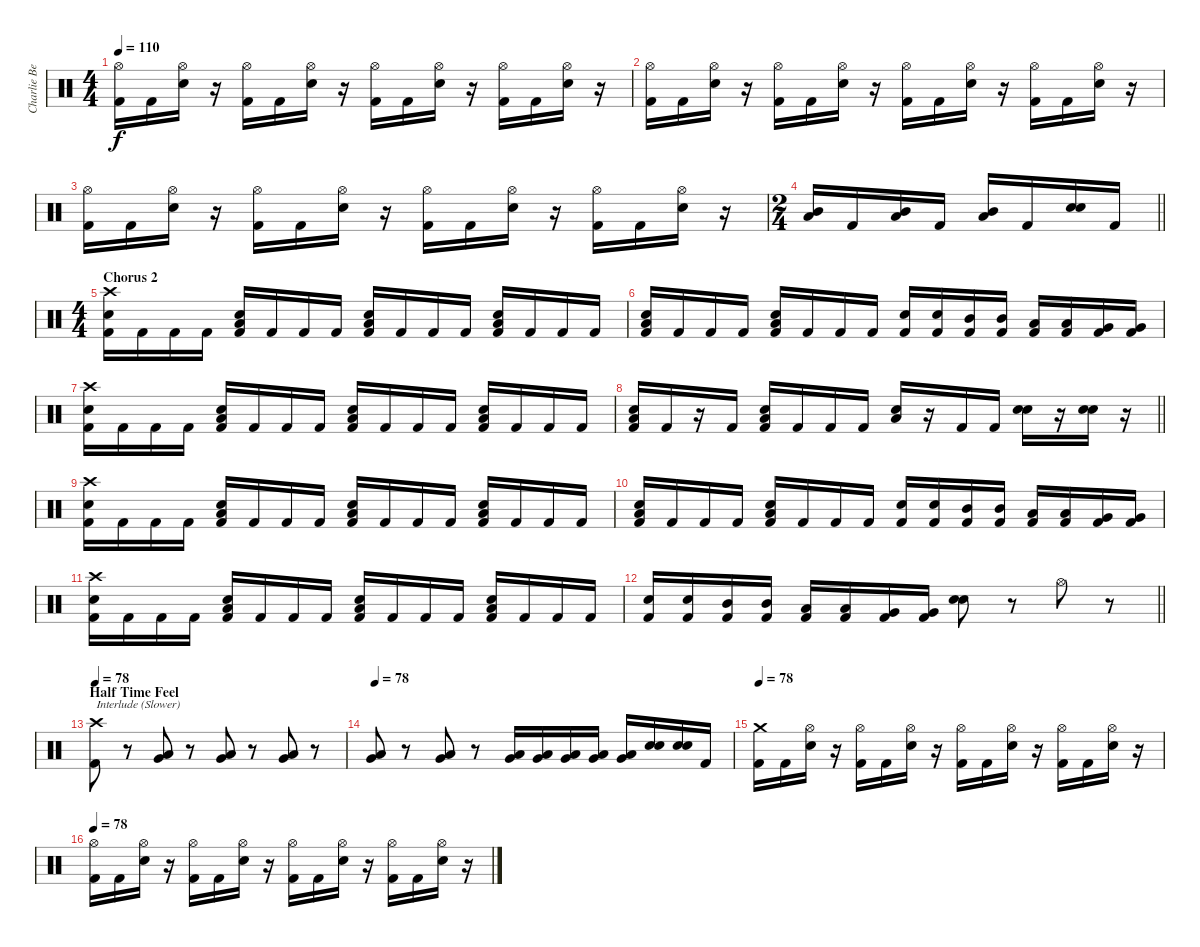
\track ("Charlie Benante" "Charlie Be") {instrument percussion}
\staff {score}
\articulation defaults
\ts (4 4)
\tempo 110
\clef neutral
\ks c
("Hi-Hat (open)" "Kick (hit) 2").16{dy f} "Kick (hit) 2".16 ("Hi-Hat (open)" "Electric Snare (hit)").16 r.16 ("Hi-Hat (open)" "Kick (hit) 2").16 "Kick (hit) 2".16 ("Hi-Hat (open)" "Electric Snare (hit)").16 r.16 ("Hi-Hat (open)" "Kick (hit) 2").16 "Kick (hit) 2".16 ("Hi-Hat (open)" "Electric Snare (hit)").16 r.16 ("Hi-Hat (open)" "Kick (hit) 2").16 "Kick (hit) 2".16 ("Hi-Hat (open)" "Electric Snare (hit)").16 r.16 |
("Hi-Hat (open)" "Kick (hit) 2").16 "Kick (hit) 2".16 ("Hi-Hat (open)" "Electric Snare (hit)").16 r.16 ("Hi-Hat (open)" "Kick (hit) 2").16 "Kick (hit) 2".16 ("Hi-Hat (open)" "Electric Snare (hit)").16 r.16 ("Hi-Hat (open)" "Kick (hit) 2").16 "Kick (hit) 2".16 ("Hi-Hat (open)" "Electric Snare (hit)").16 r.16 ("Hi-Hat (open)" "Kick (hit) 2").16 "Kick (hit) 2".16 ("Hi-Hat (open)" "Electric Snare (hit)").16 r.16 |
("Hi-Hat (open)" "Kick (hit) 2").16 "Kick (hit) 2".16 ("Hi-Hat (open)" "Electric Snare (hit)").16 r.16 ("Hi-Hat (open)" "Kick (hit) 2").16 "Kick (hit) 2".16 ("Hi-Hat (open)" "Electric Snare (hit)").16 r.16 ("Hi-Hat (open)" "Kick (hit) 2").16 "Kick (hit) 2".16 ("Hi-Hat (open)" "Electric Snare (hit)").16 r.16 ("Hi-Hat (open)" "Kick (hit) 2").16 "Kick (hit) 2".16 ("Hi-Hat (open)" "Electric Snare (hit)").16 r.16 |
\ts (2 4)
\barLineRight lightlight
("Low Tom (hit)" "Mid Tom (hit)").16 "Kick (hit) 2".16 ("Low Tom (hit)" "Mid Tom (hit)").16 "Kick (hit) 2".16 ("Low Tom (hit)" "Mid Tom (hit)").16 "Kick (hit) 2".16 ("Snare (hit) 2" "Electric Snare (hit)").16 "Kick (hit) 2".16 |
\ts (4 4)
\section ("" "Chorus 2")
("Crash high (hit)" "Electric Snare (hit)" "Kick (hit) 2").16 "Kick (hit) 2".16 "Kick (hit) 2".16 "Kick (hit) 2".16 ("Low Floor Tom (hit)" "Electric Snare (hit)" "Kick (hit) 2").16 "Kick (hit) 2".16 "Kick (hit) 2".16 "Kick (hit) 2".16 ("Low Floor Tom (hit)" "Electric Snare (hit)" "Kick (hit) 2").16 "Kick (hit) 2".16 "Kick (hit) 2".16 "Kick (hit) 2".16 ("Low Floor Tom (hit)" "Electric Snare (hit)" "Kick (hit) 2").16 "Kick (hit) 2".16 "Kick (hit) 2".16 "Kick (hit) 2".16 |
("Low Floor Tom (hit)" "Electric Snare (hit)" "Kick (hit) 2").16 "Kick (hit) 2".16 "Kick (hit) 2".16 "Kick (hit) 2".16 ("Low Floor Tom (hit)" "Electric Snare (hit)" "Kick (hit) 2").16 "Kick (hit) 2".16 "Kick (hit) 2".16 "Kick (hit) 2".16 ("Electric Snare (hit)" "Kick (hit) 2").16 ("Electric Snare (hit)" "Kick (hit) 2").16 ("Mid Tom (hit)" "Kick (hit) 2").16 ("Mid Tom (hit)" "Kick (hit) 2").16 ("Low Tom (hit)" "Kick (hit) 2").16 ("Low Tom (hit)" "Kick (hit) 2").16 ("Very Low Tom (hit)" "Kick (hit) 2").16 ("Very Low Tom (hit)" "Kick (hit) 2").16 |
("Crash high (hit)" "Electric Snare (hit)" "Kick (hit) 2").16 "Kick (hit) 2".16 "Kick (hit) 2".16 "Kick (hit) 2".16 ("Low Floor Tom (hit)" "Electric Snare (hit)" "Kick (hit) 2").16 "Kick (hit) 2".16 "Kick (hit) 2".16 "Kick (hit) 2".16 ("Low Floor Tom (hit)" "Electric Snare (hit)" "Kick (hit) 2").16 "Kick (hit) 2".16 "Kick (hit) 2".16 "Kick (hit) 2".16 ("Low Floor Tom (hit)" "Electric Snare (hit)" "Kick (hit) 2").16 "Kick (hit) 2".16 "Kick (hit) 2".16 "Kick (hit) 2".16 |
\barLineRight lightlight
("Low Floor Tom (hit)" "Electric Snare (hit)" "Kick (hit) 2").16 "Kick (hit) 2".16 r.16 "Kick (hit) 2".16 ("Low Floor Tom (hit)" "Electric Snare (hit)" "Kick (hit) 2").16 "Kick (hit) 2".16 "Kick (hit) 2".16 "Kick (hit) 2".16 ("Low Floor Tom (hit)" "Electric Snare (hit)").16 r.16 "Kick (hit) 2".16 "Kick (hit) 2".16 ("Snare (hit) 2" "Electric Snare (hit)").16 r.16 ("Snare (hit) 2" "Electric Snare (hit)").16 r.16 |
("Crash high (hit)" "Electric Snare (hit)" "Kick (hit) 2").16 "Kick (hit) 2".16 "Kick (hit) 2".16 "Kick (hit) 2".16 ("Low Floor Tom (hit)" "Electric Snare (hit)" "Kick (hit) 2").16 "Kick (hit) 2".16 "Kick (hit) 2".16 "Kick (hit) 2".16 ("Low Floor Tom (hit)" "Electric Snare (hit)" "Kick (hit) 2").16 "Kick (hit) 2".16 "Kick (hit) 2".16 "Kick (hit) 2".16 ("Low Floor Tom (hit)" "Electric Snare (hit)" "Kick (hit) 2").16 "Kick (hit) 2".16 "Kick (hit) 2".16 "Kick (hit) 2".16 |
("Low Floor Tom (hit)" "Electric Snare (hit)" "Kick (hit) 2").16 "Kick (hit) 2".16 "Kick (hit) 2".16 "Kick (hit) 2".16 ("Low Floor Tom (hit)" "Electric Snare (hit)" "Kick (hit) 2").16 "Kick (hit) 2".16 "Kick (hit) 2".16 "Kick (hit) 2".16 ("Electric Snare (hit)" "Kick (hit) 2").16 ("Electric Snare (hit)" "Kick (hit) 2").16 ("Mid Tom (hit)" "Kick (hit) 2").16 ("Mid Tom (hit)" "Kick (hit) 2").16 ("Low Tom (hit)" "Kick (hit) 2").16 ("Low Tom (hit)" "Kick (hit) 2").16 ("Very Low Tom (hit)" "Kick (hit) 2").16 ("Very Low Tom (hit)" "Kick (hit) 2").16 |
("Crash high (hit)" "Electric Snare (hit)" "Kick (hit) 2").16 "Kick (hit) 2".16 "Kick (hit) 2".16 "Kick (hit) 2".16 ("Low Floor Tom (hit)" "Electric Snare (hit)" "Kick (hit) 2").16 "Kick (hit) 2".16 "Kick (hit) 2".16 "Kick (hit) 2".16 ("Low Floor Tom (hit)" "Electric Snare (hit)" "Kick (hit) 2").16 "Kick (hit) 2".16 "Kick (hit) 2".16 "Kick (hit) 2".16 ("Low Floor Tom (hit)" "Electric Snare (hit)" "Kick (hit) 2").16 "Kick (hit) 2".16 "Kick (hit) 2".16 "Kick (hit) 2".16 |
\barLineRight lightlight
("Electric Snare (hit)" "Kick (hit) 2").16 ("Electric Snare (hit)" "Kick (hit) 2").16 ("Mid Tom (hit)" "Kick (hit) 2").16 ("Mid Tom (hit)" "Kick (hit) 2").16 ("Low Tom (hit)" "Kick (hit) 2").16 ("Low Tom (hit)" "Kick (hit) 2").16 ("Very Low Tom (hit)" "Kick (hit) 2").16 ("Very Low Tom (hit)" "Kick (hit) 2").16 ("Snare (hit) 2" "Electric Snare (hit)").8 r.8 "Hi-Hat (open)".8 r.8 |
\section ("" "Half Time Feel")
\tempo 78
("Crash high (hit)" "Kick (hit) 2").8{txt "Interlude (Slower)"} r.8 ("Very Low Tom (hit)" "Low Floor Tom (hit)").8 r.8 ("Very Low Tom (hit)" "Low Floor Tom (hit)").8 r.8 ("Very Low Tom (hit)" "Low Floor Tom (hit)").8 r.8 |
\tempo 78
("Very Low Tom (hit)" "Low Floor Tom (hit)").8 r.8 ("Very Low Tom (hit)" "Low Floor Tom (hit)").8 r.8 ("Very Low Tom (hit)" "Low Floor Tom (hit)").16 ("Very Low Tom (hit)" "Low Floor Tom (hit)").16 ("Very Low Tom (hit)" "Low Floor Tom (hit)").16 ("Very Low Tom (hit)" "Low Floor Tom (hit)").16 ("Very Low Tom (hit)" "Low Floor Tom (hit)").16 ("Snare (hit) 2" "Electric Snare (hit)").16 ("Snare (hit) 2" "Electric Snare (hit)").16 "Kick (hit) 2".16 |
\tempo 78
("Crash medium (hit)" "Kick (hit) 2").16 "Kick (hit) 2".16 ("Hi-Hat (open)" "Electric Snare (hit)").16 r.16 ("Hi-Hat (open)" "Kick (hit) 2").16 "Kick (hit) 2".16 ("Hi-Hat (open)" "Electric Snare (hit)").16 r.16 ("Hi-Hat (open)" "Kick (hit) 2").16 "Kick (hit) 2".16 ("Hi-Hat (open)" "Electric Snare (hit)").16 r.16 ("Hi-Hat (open)" "Kick (hit) 2").16 "Kick (hit) 2".16 ("Hi-Hat (open)" "Electric Snare (hit)").16 r.16 |
\tempo 78
("Hi-Hat (open)" "Kick (hit) 2").16 "Kick (hit) 2".16 ("Hi-Hat (open)" "Electric Snare (hit)").16 r.16 ("Hi-Hat (open)" "Kick (hit) 2").16 "Kick (hit) 2".16 ("Hi-Hat (open)" "Electric Snare (hit)").16 r.16 ("Hi-Hat (open)" "Kick (hit) 2").16 "Kick (hit) 2".16 ("Hi-Hat (open)" "Electric Snare (hit)").16 r.16 ("Hi-Hat (open)" "Kick (hit) 2").16 "Kick (hit) 2".16 ("Hi-Hat (open)" "Electric Snare (hit)").16 r.16
